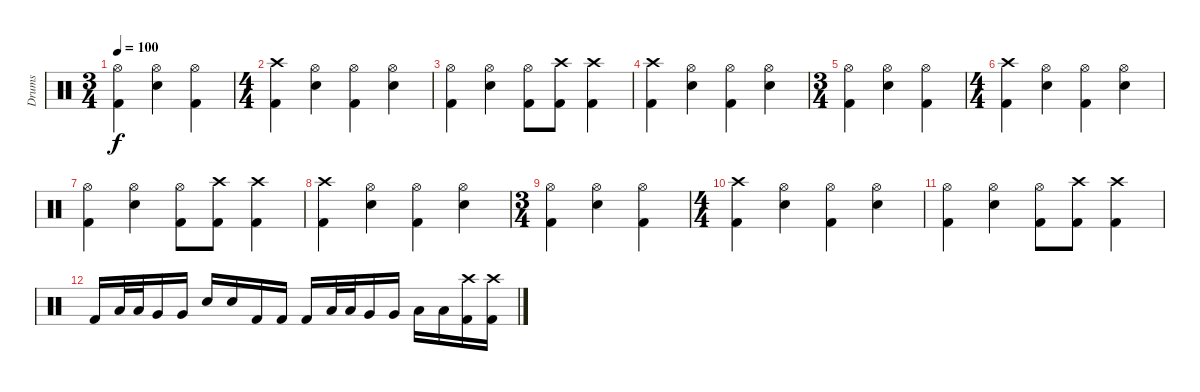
\track ("Drums" "Drums") {instrument percussion}
\staff {score}
\articulation defaults
\ts (3 4)
\tempo 100
\clef neutral
\ks c
("Kick (hit) 2" "Hi-Hat (open)").4{dy f} ("Snare (hit) 2" "Hi-Hat (open)").4 ("Kick (hit) 2" "Hi-Hat (open)").4 |
\ts (4 4)
("Kick (hit) 2" "Crash high (hit)").4 ("Snare (hit) 2" "Hi-Hat (open)").4 ("Kick (hit) 2" "Hi-Hat (open)").4 ("Snare (hit) 2" "Hi-Hat (open)").4 |
("Kick (hit) 2" "Hi-Hat (open)").4 ("Snare (hit) 2" "Hi-Hat (open)").4 ("Kick (hit) 2" "Hi-Hat (open)").8 ("Kick (hit) 2" "Crash high (hit)").8 ("Kick (hit) 2" "Crash high (hit)").4 |
("Kick (hit) 2" "Crash high (hit)").4 ("Snare (hit) 2" "Hi-Hat (open)").4 ("Kick (hit) 2" "Hi-Hat (open)").4 ("Snare (hit) 2" "Hi-Hat (open)").4 |
\ts (3 4)
("Kick (hit) 2" "Hi-Hat (open)").4 ("Snare (hit) 2" "Hi-Hat (open)").4 ("Kick (hit) 2" "Hi-Hat (open)").4 |
\ts (4 4)
("Kick (hit) 2" "Crash high (hit)").4 ("Snare (hit) 2" "Hi-Hat (open)").4 ("Kick (hit) 2" "Hi-Hat (open)").4 ("Snare (hit) 2" "Hi-Hat (open)").4 |
("Kick (hit) 2" "Hi-Hat (open)").4 ("Snare (hit) 2" "Hi-Hat (open)").4 ("Kick (hit) 2" "Hi-Hat (open)").8 ("Kick (hit) 2" "Crash high (hit)").8 ("Kick (hit) 2" "Crash high (hit)").4 |
("Kick (hit) 2" "Crash high (hit)").4 ("Snare (hit) 2" "Hi-Hat (open)").4 ("Kick (hit) 2" "Hi-Hat (open)").4 ("Snare (hit) 2" "Hi-Hat (open)").4 |
\ts (3 4)
("Kick (hit) 2" "Hi-Hat (open)").4 ("Snare (hit) 2" "Hi-Hat (open)").4 ("Kick (hit) 2" "Hi-Hat (open)").4 |
\ts (4 4)
("Kick (hit) 2" "Crash high (hit)").4 ("Snare (hit) 2" "Hi-Hat (open)").4 ("Kick (hit) 2" "Hi-Hat (open)").4 ("Snare (hit) 2" "Hi-Hat (open)").4 |
("Kick (hit) 2" "Hi-Hat (open)").4 ("Snare (hit) 2" "Hi-Hat (open)").4 ("Kick (hit) 2" "Hi-Hat (open)").8 ("Kick (hit) 2" "Crash high (hit)").8 ("Kick (hit) 2" "Crash high (hit)").4 |
"Kick (hit) 2".16 "Low Tom (hit)".32 "Low Tom (hit)".32 "Very Low Tom (hit)".16 "Very Low Tom (hit)".16 "Snare (hit) 2".16 "Snare (hit) 2".16 "Kick (hit) 2".16 "Kick (hit) 2".16 "Kick (hit) 2".16 "Low Tom (hit)".32 "Low Tom (hit)".32 "Very Low Tom (hit)".16 "Very Low Tom (hit)".16 "Low Floor Tom (hit)".16 "Low Floor Tom (hit)".16 ("Kick (hit) 2" "Crash high (hit)").16 ("Kick (hit) 2" "Crash high (hit)").16
